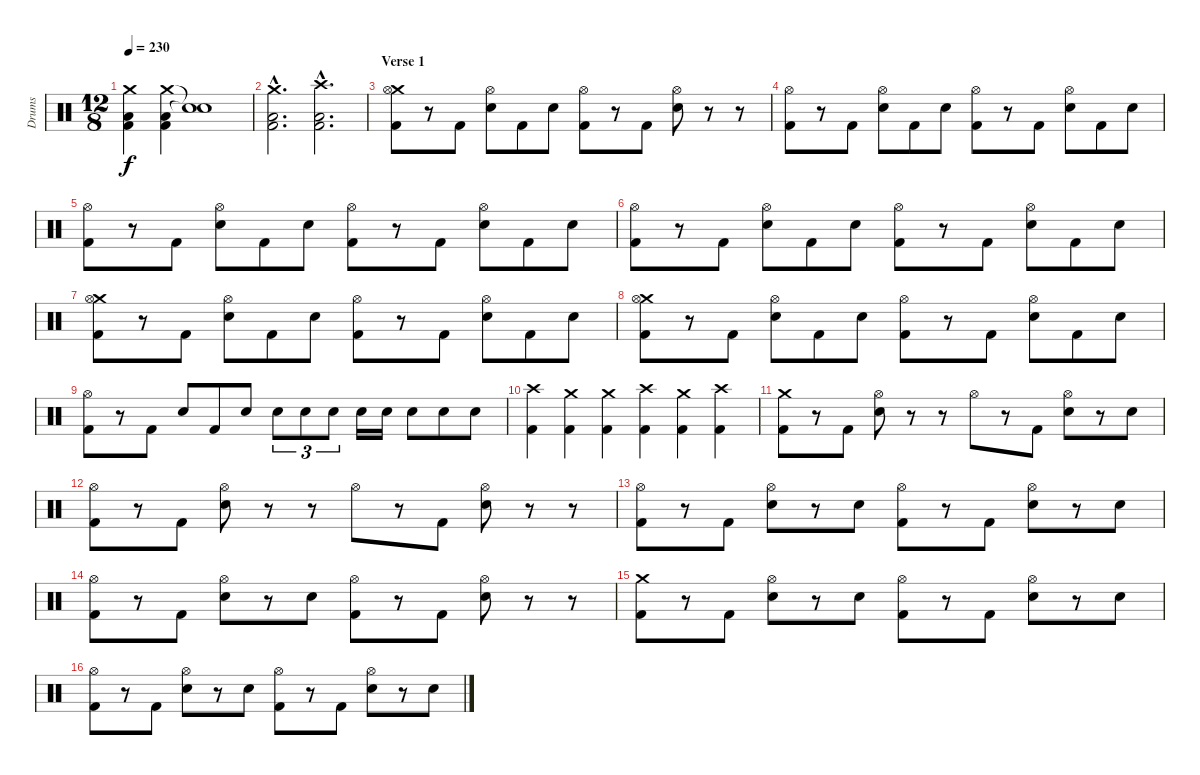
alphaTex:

\track ("Drums" "Drums") {instrument percussion}
\staff {score}
\articulation defaults
\ts (12 8)
\tempo 230
\clef neutral
\ks c
("Crash medium (hit)" "Low Floor Tom (hit)" "Kick (hit) 2").4{dy f} ("Crash medium (hit)" "Low Floor Tom (hit)" "Kick (hit) 2").4 ("Snare (hit)"{t} "Snare (hit)"{t}).1 |
("Crash medium (hit)"{hac} "Low Floor Tom (hit)"{hac} "Kick (hit) 2"{hac}).2{d} ("Crash high (hit)"{hac} "Low Floor Tom (hit)"{hac} "Kick (hit) 2"{hac}).2{d} |
\section ("" "Verse 1")
("Crash medium (hit)" "Hi-Hat (open)" "Kick (hit) 2").8 r.8 "Kick (hit) 2".8 ("Hi-Hat (open)" "Snare (hit) 2").8 "Kick (hit) 2".8 "Snare (hit) 2".8 ("Hi-Hat (open)" "Kick (hit) 2").8 r.8 "Kick (hit) 2".8 ("Hi-Hat (open)" "Snare (hit) 2").8 r.8 r.8 |
("Hi-Hat (open)" "Kick (hit) 2").8 r.8 "Kick (hit) 2".8 ("Hi-Hat (open)" "Snare (hit) 2").8 "Kick (hit) 2".8 "Snare (hit) 2".8 ("Hi-Hat (open)" "Kick (hit) 2").8 r.8 "Kick (hit) 2".8 ("Hi-Hat (open)" "Snare (hit) 2").8 "Kick (hit) 2".8 "Snare (hit) 2".8 |
("Hi-Hat (open)" "Kick (hit) 2").8 r.8 "Kick (hit) 2".8 ("Hi-Hat (open)" "Snare (hit) 2").8 "Kick (hit) 2".8 "Snare (hit) 2".8 ("Hi-Hat (open)" "Kick (hit) 2").8 r.8 "Kick (hit) 2".8 ("Hi-Hat (open)" "Snare (hit) 2").8 "Kick (hit) 2".8 "Snare (hit) 2".8 |
("Hi-Hat (open)" "Kick (hit) 2").8 r.8 "Kick (hit) 2".8 ("Hi-Hat (open)" "Snare (hit) 2").8 "Kick (hit) 2".8 "Snare (hit) 2".8 ("Hi-Hat (open)" "Kick (hit) 2").8 r.8 "Kick (hit) 2".8 ("Hi-Hat (open)" "Snare (hit) 2").8 "Kick (hit) 2".8 "Snare (hit) 2".8 |
("Crash medium (hit)" "Hi-Hat (open)" "Kick (hit) 2").8 r.8 "Kick (hit) 2".8 ("Hi-Hat (open)" "Snare (hit) 2").8 "Kick (hit) 2".8 "Snare (hit) 2".8 ("Hi-Hat (open)" "Kick (hit) 2").8 r.8 "Kick (hit) 2".8 ("Hi-Hat (open)" "Snare (hit) 2").8 "Kick (hit) 2".8 "Snare (hit) 2".8 |
("Crash medium (hit)" "Hi-Hat (open)" "Kick (hit) 2").8 r.8 "Kick (hit) 2".8 ("Hi-Hat (open)" "Snare (hit) 2").8 "Kick (hit) 2".8 "Snare (hit) 2".8 ("Hi-Hat (open)" "Kick (hit) 2").8 r.8 "Kick (hit) 2".8 ("Hi-Hat (open)" "Snare (hit) 2").8 "Kick (hit) 2".8 "Snare (hit) 2".8 |
("Hi-Hat (open)" "Kick (hit) 2").8 r.8 "Kick (hit) 2".8 "Snare (hit) 2".8 "Kick (hit) 2".8 "Snare (hit) 2".8 "Snare (hit) 2".8{tu (3 2)} "Snare (hit) 2".8{tu (3 2)} "Snare (hit) 2".8{tu (3 2)} "Snare (hit) 2".16 "Snare (hit) 2".16 "Snare (hit) 2".8 "Snare (hit) 2".8 "Snare (hit) 2".8 |
("Crash high (hit)" "Kick (hit) 2").4 ("Crash medium (hit)" "Kick (hit) 2").4 ("Crash medium (hit)" "Kick (hit) 2").4 ("Crash high (hit)" "Kick (hit) 2").4 ("Crash medium (hit)" "Kick (hit) 2").4 ("Crash high (hit)" "Kick (hit) 2").4 |
("Crash medium (hit)" "Kick (hit) 2").8 r.8 "Kick (hit) 2".8 ("Hi-Hat (open)" "Snare (hit) 2").8 r.8 r.8 "Hi-Hat (open)".8 r.8 "Kick (hit) 2".8 ("Hi-Hat (open)" "Snare (hit) 2").8 r.8 "Snare (hit) 2".8 |
("Hi-Hat (open)" "Kick (hit) 2").8 r.8 "Kick (hit) 2".8 ("Hi-Hat (open)" "Snare (hit) 2").8 r.8 r.8 "Hi-Hat (open)".8 r.8 "Kick (hit) 2".8 ("Hi-Hat (open)" "Snare (hit) 2").8 r.8 r.8 |
("Hi-Hat (open)" "Kick (hit) 2").8 r.8 "Kick (hit) 2".8 ("Hi-Hat (open)" "Snare (hit) 2").8 r.8 "Snare (hit) 2".8 ("Hi-Hat (open)" "Kick (hit) 2").8 r.8 "Kick (hit) 2".8 ("Hi-Hat (open)" "Snare (hit) 2").8 r.8 "Snare (hit) 2".8 |
("Hi-Hat (open)" "Kick (hit) 2").8 r.8 "Kick (hit) 2".8 ("Hi-Hat (open)" "Snare (hit) 2").8 r.8 "Snare (hit) 2".8 ("Hi-Hat (open)" "Kick (hit) 2").8 r.8 "Kick (hit) 2".8 ("Hi-Hat (open)" "Snare (hit) 2").8 r.8 r.8 |
("Crash medium (hit)" "Kick (hit) 2").8 r.8 "Kick (hit) 2".8 ("Hi-Hat (open)" "Snare (hit) 2").8 r.8 "Snare (hit) 2".8 ("Hi-Hat (open)" "Kick (hit) 2").8 r.8 "Kick (hit) 2".8 ("Hi-Hat (open)" "Snare (hit) 2").8 r.8 "Snare (hit) 2".8 |
("Hi-Hat (open)" "Kick (hit) 2").8 r.8 "Kick (hit) 2".8 ("Hi-Hat (open)" "Snare (hit) 2").8 r.8 "Snare (hit) 2".8 ("Hi-Hat (open)" "Kick (hit) 2").8 r.8 "Kick (hit) 2".8 ("Hi-Hat (open)" "Snare (hit) 2").8 r.8 "Snare (hit) 2".8
